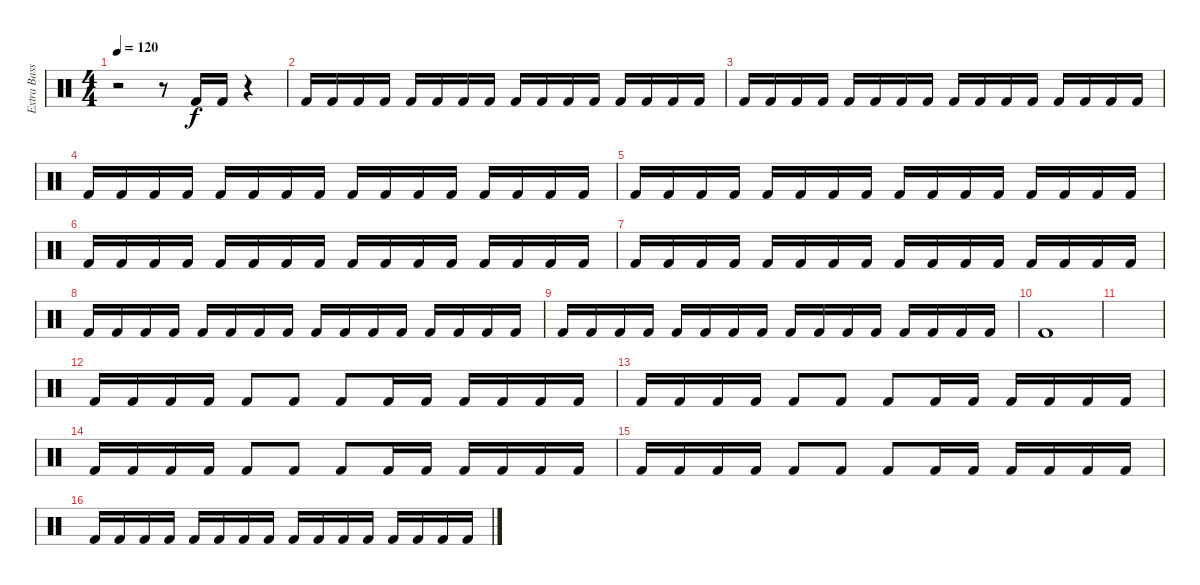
\track ("Extra Bass Drum" "Extra Bass") {instrument percussion}
\staff {score}
\articulation defaults
\ts (4 4)
\tempo 120
\clef neutral
\ks c
r.2{dy f} r.8 "Kick (hit) 2".16 "Kick (hit) 2".16 r.4 |
"Kick (hit) 2".16 "Kick (hit) 2".16 "Kick (hit) 2".16 "Kick (hit) 2".16 "Kick (hit) 2".16 "Kick (hit) 2".16 "Kick (hit) 2".16 "Kick (hit) 2".16 "Kick (hit) 2".16 "Kick (hit) 2".16 "Kick (hit) 2".16 "Kick (hit) 2".16 "Kick (hit) 2".16 "Kick (hit) 2".16 "Kick (hit) 2".16 "Kick (hit) 2".16 |
"Kick (hit) 2".16 "Kick (hit) 2".16 "Kick (hit) 2".16 "Kick (hit) 2".16 "Kick (hit) 2".16 "Kick (hit) 2".16 "Kick (hit) 2".16 "Kick (hit) 2".16 "Kick (hit) 2".16 "Kick (hit) 2".16 "Kick (hit) 2".16 "Kick (hit) 2".16 "Kick (hit) 2".16 "Kick (hit) 2".16 "Kick (hit) 2".16 "Kick (hit) 2".16 |
"Kick (hit) 2".16 "Kick (hit) 2".16 "Kick (hit) 2".16 "Kick (hit) 2".16 "Kick (hit) 2".16 "Kick (hit) 2".16 "Kick (hit) 2".16 "Kick (hit) 2".16 "Kick (hit) 2".16 "Kick (hit) 2".16 "Kick (hit) 2".16 "Kick (hit) 2".16 "Kick (hit) 2".16 "Kick (hit) 2".16 "Kick (hit) 2".16 "Kick (hit) 2".16 |
"Kick (hit) 2".16 "Kick (hit) 2".16 "Kick (hit) 2".16 "Kick (hit) 2".16 "Kick (hit) 2".16 "Kick (hit) 2".16 "Kick (hit) 2".16 "Kick (hit) 2".16 "Kick (hit) 2".16 "Kick (hit) 2".16 "Kick (hit) 2".16 "Kick (hit) 2".16 "Kick (hit) 2".16 "Kick (hit) 2".16 "Kick (hit) 2".16 "Kick (hit) 2".16 |
"Kick (hit) 2".16 "Kick (hit) 2".16 "Kick (hit) 2".16 "Kick (hit) 2".16 "Kick (hit) 2".16 "Kick (hit) 2".16 "Kick (hit) 2".16 "Kick (hit) 2".16 "Kick (hit) 2".16 "Kick (hit) 2".16 "Kick (hit) 2".16 "Kick (hit) 2".16 "Kick (hit) 2".16 "Kick (hit) 2".16 "Kick (hit) 2".16 "Kick (hit) 2".16 |
"Kick (hit) 2".16 "Kick (hit) 2".16 "Kick (hit) 2".16 "Kick (hit) 2".16 "Kick (hit) 2".16 "Kick (hit) 2".16 "Kick (hit) 2".16 "Kick (hit) 2".16 "Kick (hit) 2".16 "Kick (hit) 2".16 "Kick (hit) 2".16 "Kick (hit) 2".16 "Kick (hit) 2".16 "Kick (hit) 2".16 "Kick (hit) 2".16 "Kick (hit) 2".16 |
"Kick (hit) 2".16 "Kick (hit) 2".16 "Kick (hit) 2".16 "Kick (hit) 2".16 "Kick (hit) 2".16 "Kick (hit) 2".16 "Kick (hit) 2".16 "Kick (hit) 2".16 "Kick (hit) 2".16 "Kick (hit) 2".16 "Kick (hit) 2".16 "Kick (hit) 2".16 "Kick (hit) 2".16 "Kick (hit) 2".16 "Kick (hit) 2".16 "Kick (hit) 2".16 |
"Kick (hit) 2".16 "Kick (hit) 2".16 "Kick (hit) 2".16 "Kick (hit) 2".16 "Kick (hit) 2".16 "Kick (hit) 2".16 "Kick (hit) 2".16 "Kick (hit) 2".16 "Kick (hit) 2".16 "Kick (hit) 2".16 "Kick (hit) 2".16 "Kick (hit) 2".16 "Kick (hit) 2".16 "Kick (hit) 2".16 "Kick (hit) 2".16 "Kick (hit) 2".16 |
"Kick (hit) 2".1 |
|
"Kick (hit) 2".16 "Kick (hit) 2".16 "Kick (hit) 2".16 "Kick (hit) 2".16 "Kick (hit) 2".8 "Kick (hit) 2".8 "Kick (hit) 2".8 "Kick (hit) 2".16 "Kick (hit) 2".16 "Kick (hit) 2".16 "Kick (hit) 2".16 "Kick (hit) 2".16 "Kick (hit) 2".16 |
"Kick (hit) 2".16 "Kick (hit) 2".16 "Kick (hit) 2".16 "Kick (hit) 2".16 "Kick (hit) 2".8 "Kick (hit) 2".8 "Kick (hit) 2".8 "Kick (hit) 2".16 "Kick (hit) 2".16 "Kick (hit) 2".16 "Kick (hit) 2".16 "Kick (hit) 2".16 "Kick (hit) 2".16 |
"Kick (hit) 2".16 "Kick (hit) 2".16 "Kick (hit) 2".16 "Kick (hit) 2".16 "Kick (hit) 2".8 "Kick (hit) 2".8 "Kick (hit) 2".8 "Kick (hit) 2".16 "Kick (hit) 2".16 "Kick (hit) 2".16 "Kick (hit) 2".16 "Kick (hit) 2".16 "Kick (hit) 2".16 |
"Kick (hit) 2".16 "Kick (hit) 2".16 "Kick (hit) 2".16 "Kick (hit) 2".16 "Kick (hit) 2".8 "Kick (hit) 2".8 "Kick (hit) 2".8 "Kick (hit) 2".16 "Kick (hit) 2".16 "Kick (hit) 2".16 "Kick (hit) 2".16 "Kick (hit) 2".16 "Kick (hit) 2".16 |
"Kick (hit) 2".16 "Kick (hit) 2".16 "Kick (hit) 2".16 "Kick (hit) 2".16 "Kick (hit) 2".16 "Kick (hit) 2".16 "Kick (hit) 2".16 "Kick (hit) 2".16 "Kick (hit) 2".16 "Kick (hit) 2".16 "Kick (hit) 2".16 "Kick (hit) 2".16 "Kick (hit) 2".16 "Kick (hit) 2".16 "Kick (hit) 2".16 "Kick (hit) 2".16
